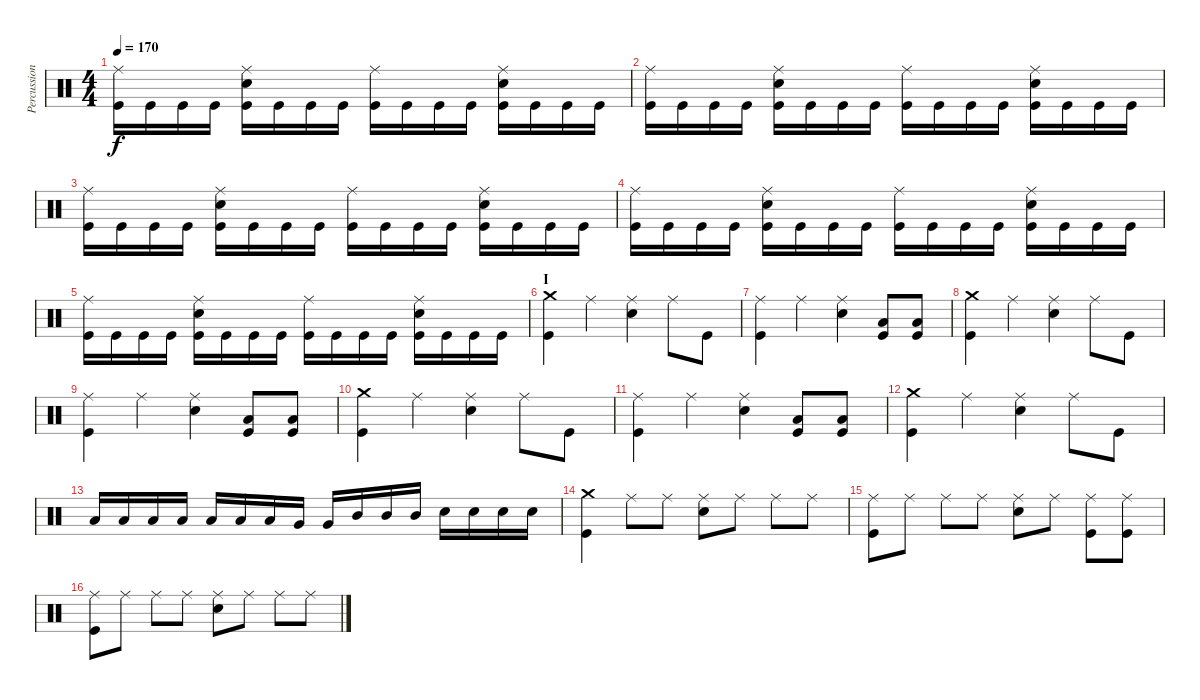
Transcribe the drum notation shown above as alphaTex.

\track ("Percussion" "Percussion") {instrument percussion}
\staff {score}
\articulation defaults
\ts (4 4)
\tempo 170
\clef neutral
\ks c
("Ride (middle)" "Kick (hit)").16{dy f} "Kick (hit)".16 "Kick (hit)".16 "Kick (hit)".16 ("Ride (middle)" "Electric Snare (hit)" "Kick (hit)").16 "Kick (hit)".16 "Kick (hit)".16 "Kick (hit)".16 ("Ride (middle)" "Kick (hit)").16 "Kick (hit)".16 "Kick (hit)".16 "Kick (hit)".16 ("Ride (middle)" "Electric Snare (hit)" "Kick (hit)").16 "Kick (hit)".16 "Kick (hit)".16 "Kick (hit)".16 |
("Ride (middle)" "Kick (hit)").16 "Kick (hit)".16 "Kick (hit)".16 "Kick (hit)".16 ("Ride (middle)" "Electric Snare (hit)" "Kick (hit)").16 "Kick (hit)".16 "Kick (hit)".16 "Kick (hit)".16 ("Ride (middle)" "Kick (hit)").16 "Kick (hit)".16 "Kick (hit)".16 "Kick (hit)".16 ("Ride (middle)" "Electric Snare (hit)" "Kick (hit)").16 "Kick (hit)".16 "Kick (hit)".16 "Kick (hit)".16 |
("Ride (middle)" "Kick (hit)").16 "Kick (hit)".16 "Kick (hit)".16 "Kick (hit)".16 ("Ride (middle)" "Electric Snare (hit)" "Kick (hit)").16 "Kick (hit)".16 "Kick (hit)".16 "Kick (hit)".16 ("Ride (middle)" "Kick (hit)").16 "Kick (hit)".16 "Kick (hit)".16 "Kick (hit)".16 ("Ride (middle)" "Electric Snare (hit)" "Kick (hit)").16 "Kick (hit)".16 "Kick (hit)".16 "Kick (hit)".16 |
("Ride (middle)" "Kick (hit)").16 "Kick (hit)".16 "Kick (hit)".16 "Kick (hit)".16 ("Ride (middle)" "Electric Snare (hit)" "Kick (hit)").16 "Kick (hit)".16 "Kick (hit)".16 "Kick (hit)".16 ("Ride (middle)" "Kick (hit)").16 "Kick (hit)".16 "Kick (hit)".16 "Kick (hit)".16 ("Ride (middle)" "Electric Snare (hit)" "Kick (hit)").16 "Kick (hit)".16 "Kick (hit)".16 "Kick (hit)".16 |
("Ride (middle)" "Kick (hit)").16 "Kick (hit)".16 "Kick (hit)".16 "Kick (hit)".16 ("Ride (middle)" "Electric Snare (hit)" "Kick (hit)").16 "Kick (hit)".16 "Kick (hit)".16 "Kick (hit)".16 ("Ride (middle)" "Kick (hit)").16 "Kick (hit)".16 "Kick (hit)".16 "Kick (hit)".16 ("Ride (middle)" "Electric Snare (hit)" "Kick (hit)").16 "Kick (hit)".16 "Kick (hit)".16 "Kick (hit)".16 |
\section ("" "I")
("Crash medium (hit)" "Kick (hit)").4 "Ride (middle)".4 ("Ride (middle)" "Electric Snare (hit)").4 "Ride (middle)".8 "Kick (hit)".8 |
("Ride (middle)" "Kick (hit)").4 "Ride (middle)".4 ("Ride (middle)" "Electric Snare (hit)").4 ("Low Floor Tom (hit)" "Kick (hit)").8 ("Low Floor Tom (hit)" "Kick (hit)").8 |
("Crash medium (hit)" "Kick (hit)").4 "Ride (middle)".4 ("Ride (middle)" "Electric Snare (hit)").4 "Ride (middle)".8 "Kick (hit)".8 |
("Ride (middle)" "Kick (hit)").4 "Ride (middle)".4 ("Ride (middle)" "Electric Snare (hit)").4 ("Low Floor Tom (hit)" "Kick (hit)").8 ("Low Floor Tom (hit)" "Kick (hit)").8 |
("Crash medium (hit)" "Kick (hit)").4 "Ride (middle)".4 ("Ride (middle)" "Electric Snare (hit)").4 "Ride (middle)".8 "Kick (hit)".8 |
("Ride (middle)" "Kick (hit)").4 "Ride (middle)".4 ("Ride (middle)" "Electric Snare (hit)").4 ("Low Floor Tom (hit)" "Kick (hit)").8 ("Low Floor Tom (hit)" "Kick (hit)").8 |
("Crash medium (hit)" "Kick (hit)").4 "Ride (middle)".4 ("Ride (middle)" "Electric Snare (hit)").4 "Ride (middle)".8 "Kick (hit)".8 |
"Low Floor Tom (hit)".16 "Low Floor Tom (hit)".16 "Low Floor Tom (hit)".16 "Low Floor Tom (hit)".16 "Low Tom (hit)".16 "Low Tom (hit)".16 "Low Tom (hit)".16 "Very Low Tom (hit)".16 "Very Low Tom (hit)".16 "Mid Tom (hit)".16 "Mid Tom (hit)".16 "Mid Tom (hit)".16 "Electric Snare (hit)".16 "Electric Snare (hit)".16 "Electric Snare (hit)".16 "Electric Snare (hit)".16 |
("Crash medium (hit)" "Kick (hit)").4 "Ride (middle)".8 "Ride (middle)".8 ("Ride (middle)" "Electric Snare (hit)").8 "Ride (middle)".8 "Ride (middle)".8 "Ride (middle)".8 |
("Ride (middle)" "Kick (hit)").8 "Ride (middle)".8 "Ride (middle)".8 "Ride (middle)".8 ("Ride (middle)" "Electric Snare (hit)").8 "Ride (middle)".8 ("Ride (middle)" "Kick (hit)").8 ("Ride (middle)" "Kick (hit)").8 |
("Ride (middle)" "Kick (hit)").8 "Ride (middle)".8 "Ride (middle)".8 "Ride (middle)".8 ("Ride (middle)" "Electric Snare (hit)").8 "Ride (middle)".8 "Ride (middle)".8 "Ride (middle)".8
